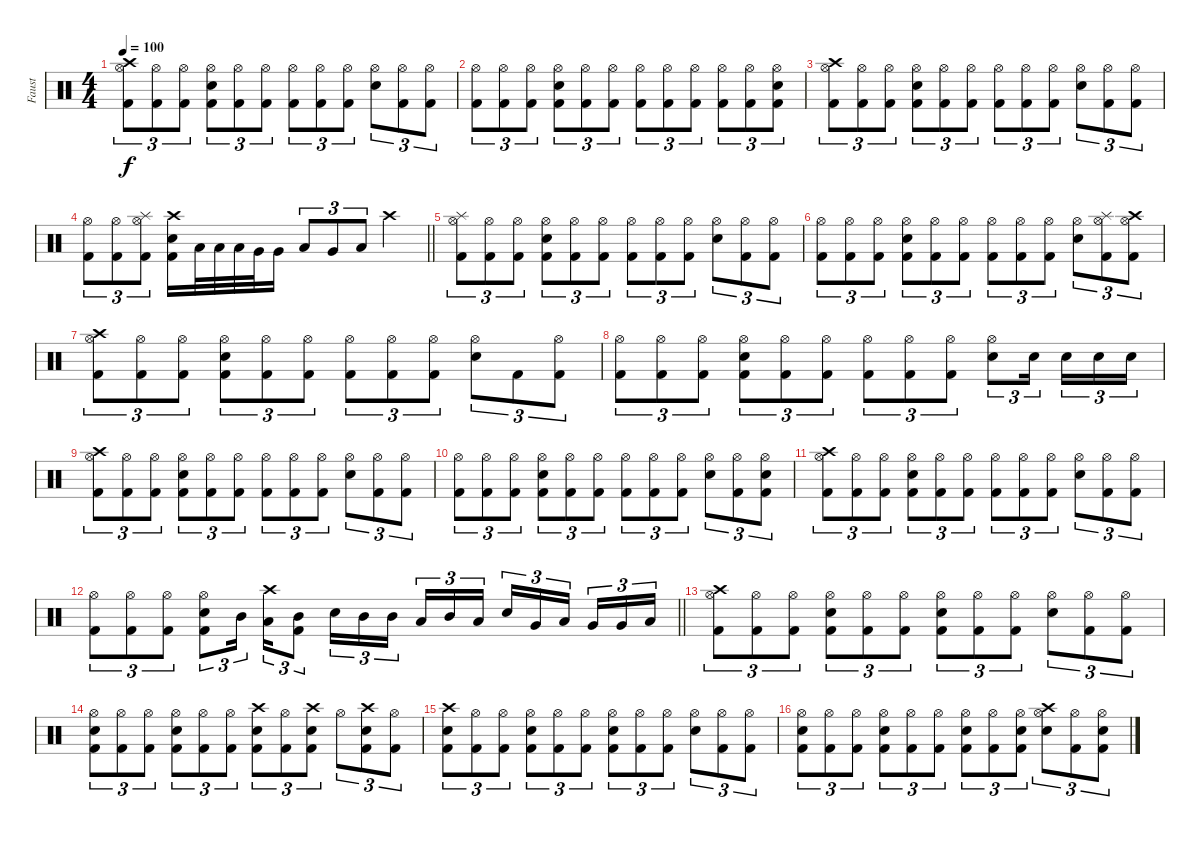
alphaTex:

\track ("Faust" "Faust") {instrument percussion}
\staff {score}
\articulation defaults
\ts (4 4)
\tempo 100
\clef neutral
\ks c
("Crash high (hit)" "Hi-Hat (open)" "Kick (hit) 2").8{tu (3 2) dy f} ("Hi-Hat (open)" "Kick (hit) 2").8{tu (3 2)} ("Hi-Hat (open)" "Kick (hit) 2").8{tu (3 2)} ("Snare (hit) 2" "Hi-Hat (open)" "Kick (hit) 2").8{tu (3 2)} ("Hi-Hat (open)" "Kick (hit) 2").8{tu (3 2)} ("Hi-Hat (open)" "Kick (hit) 2").8{tu (3 2)} ("Hi-Hat (open)" "Kick (hit) 2").8{tu (3 2)} ("Hi-Hat (open)" "Kick (hit) 2").8{tu (3 2)} ("Hi-Hat (open)" "Kick (hit) 2").8{tu (3 2)} ("Snare (hit) 2" "Hi-Hat (open)").8{tu (3 2)} ("Hi-Hat (open)" "Kick (hit) 2").8{tu (3 2)} ("Hi-Hat (open)" "Kick (hit) 2").8{tu (3 2)} |
("Hi-Hat (open)" "Kick (hit) 2").8{tu (3 2)} ("Hi-Hat (open)" "Kick (hit) 2").8{tu (3 2)} ("Hi-Hat (open)" "Kick (hit) 2").8{tu (3 2)} ("Snare (hit) 2" "Hi-Hat (open)" "Kick (hit) 2").8{tu (3 2)} ("Hi-Hat (open)" "Kick (hit) 2").8{tu (3 2)} ("Hi-Hat (open)" "Kick (hit) 2").8{tu (3 2)} ("Hi-Hat (open)" "Kick (hit) 2").8{tu (3 2)} ("Hi-Hat (open)" "Kick (hit) 2").8{tu (3 2)} ("Hi-Hat (open)" "Kick (hit) 2").8{tu (3 2)} ("Hi-Hat (open)" "Kick (hit) 2").8{tu (3 2)} ("Hi-Hat (open)" "Kick (hit) 2").8{tu (3 2)} ("Snare (hit) 2" "Hi-Hat (open)" "Kick (hit) 2").8{tu (3 2)} |
("Crash high (hit)" "Hi-Hat (open)" "Kick (hit) 2").8{tu (3 2)} ("Hi-Hat (open)" "Kick (hit) 2").8{tu (3 2)} ("Hi-Hat (open)" "Kick (hit) 2").8{tu (3 2)} ("Snare (hit) 2" "Hi-Hat (open)" "Kick (hit) 2").8{tu (3 2)} ("Hi-Hat (open)" "Kick (hit) 2").8{tu (3 2)} ("Hi-Hat (open)" "Kick (hit) 2").8{tu (3 2)} ("Hi-Hat (open)" "Kick (hit) 2").8{tu (3 2)} ("Hi-Hat (open)" "Kick (hit) 2").8{tu (3 2)} ("Hi-Hat (open)" "Kick (hit) 2").8{tu (3 2)} ("Snare (hit) 2" "Hi-Hat (open)").8{tu (3 2)} ("Hi-Hat (open)" "Kick (hit) 2").8{tu (3 2)} ("Hi-Hat (open)" "Kick (hit) 2").8{tu (3 2)} |
\barLineRight lightlight
("Hi-Hat (open)" "Kick (hit) 2").8{tu (3 2)} ("Hi-Hat (open)" "Kick (hit) 2").8{tu (3 2)} ("Splash (hit)" "Hi-Hat (open)" "Kick (hit) 2").8{tu (3 2)} ("Crash high (hit)" "Snare (hit) 2" "Kick (hit) 2").16 "Low Tom (hit)".32 "Low Tom (hit)".32 "Low Tom (hit)".32 "Very Low Tom (hit)".32 "Very Low Tom (hit)".16 "Low Floor Tom (hit)".8{tu (3 2)} "Very Low Tom (hit)".8{tu (3 2)} "Low Floor Tom (hit)".8{tu (3 2)} "Crash high (hit)".4 |
("Splash (hit)" "Hi-Hat (open)" "Kick (hit) 2").8{tu (3 2)} ("Hi-Hat (open)" "Kick (hit) 2").8{tu (3 2)} ("Hi-Hat (open)" "Kick (hit) 2").8{tu (3 2)} ("Snare (hit) 2" "Hi-Hat (open)" "Kick (hit) 2").8{tu (3 2)} ("Hi-Hat (open)" "Kick (hit) 2").8{tu (3 2)} ("Hi-Hat (open)" "Kick (hit) 2").8{tu (3 2)} ("Hi-Hat (open)" "Kick (hit) 2").8{tu (3 2)} ("Hi-Hat (open)" "Kick (hit) 2").8{tu (3 2)} ("Hi-Hat (open)" "Kick (hit) 2").8{tu (3 2)} ("Snare (hit) 2" "Hi-Hat (open)").8{tu (3 2)} ("Hi-Hat (open)" "Kick (hit) 2").8{tu (3 2)} ("Hi-Hat (open)" "Kick (hit) 2").8{tu (3 2)} |
("Hi-Hat (open)" "Kick (hit) 2").8{tu (3 2)} ("Hi-Hat (open)" "Kick (hit) 2").8{tu (3 2)} ("Hi-Hat (open)" "Kick (hit) 2").8{tu (3 2)} ("Snare (hit) 2" "Hi-Hat (open)" "Kick (hit) 2").8{tu (3 2)} ("Hi-Hat (open)" "Kick (hit) 2").8{tu (3 2)} ("Hi-Hat (open)" "Kick (hit) 2").8{tu (3 2)} ("Hi-Hat (open)" "Kick (hit) 2").8{tu (3 2)} ("Hi-Hat (open)" "Kick (hit) 2").8{tu (3 2)} ("Hi-Hat (open)" "Kick (hit) 2").8{tu (3 2)} ("Snare (hit) 2" "Hi-Hat (open)").8{tu (3 2)} ("Splash (hit)" "Hi-Hat (open)" "Kick (hit) 2").8{tu (3 2)} ("Crash high (hit)" "Hi-Hat (open)" "Kick (hit) 2").8{tu (3 2)} |
("Crash high (hit)" "Hi-Hat (open)" "Kick (hit) 2").8{tu (3 2)} ("Hi-Hat (open)" "Kick (hit) 2").8{tu (3 2)} ("Hi-Hat (open)" "Kick (hit) 2").8{tu (3 2)} ("Snare (hit) 2" "Hi-Hat (open)" "Kick (hit) 2").8{tu (3 2)} ("Hi-Hat (open)" "Kick (hit) 2").8{tu (3 2)} ("Hi-Hat (open)" "Kick (hit) 2").8{tu (3 2)} ("Hi-Hat (open)" "Kick (hit) 2").8{tu (3 2)} ("Hi-Hat (open)" "Kick (hit) 2").8{tu (3 2)} ("Hi-Hat (open)" "Kick (hit) 2").8{tu (3 2)} ("Snare (hit) 2" "Hi-Hat (open)").8{tu (3 2)} "Kick (hit) 2".8{tu (3 2)} ("Hi-Hat (open)" "Kick (hit) 2").8{tu (3 2)} |
("Hi-Hat (open)" "Kick (hit) 2").8{tu (3 2)} ("Hi-Hat (open)" "Kick (hit) 2").8{tu (3 2)} ("Hi-Hat (open)" "Kick (hit) 2").8{tu (3 2)} ("Snare (hit) 2" "Hi-Hat (open)" "Kick (hit) 2").8{tu (3 2)} ("Hi-Hat (open)" "Kick (hit) 2").8{tu (3 2)} ("Hi-Hat (open)" "Kick (hit) 2").8{tu (3 2)} ("Hi-Hat (open)" "Kick (hit) 2").8{tu (3 2)} ("Hi-Hat (open)" "Kick (hit) 2").8{tu (3 2)} ("Hi-Hat (open)" "Kick (hit) 2").8{tu (3 2)} ("Snare (hit) 2" "Hi-Hat (open)").8{tu (3 2)} "Snare (hit) 2".16{tu (3 2) beam splitsecondary} "Snare (hit) 2".16{tu (3 2)} "Snare (hit) 2".16{tu (3 2)} "Snare (hit) 2".16{tu (3 2)} |
("Crash high (hit)" "Hi-Hat (open)" "Kick (hit) 2").8{tu (3 2)} ("Hi-Hat (open)" "Kick (hit) 2").8{tu (3 2)} ("Hi-Hat (open)" "Kick (hit) 2").8{tu (3 2)} ("Snare (hit) 2" "Hi-Hat (open)" "Kick (hit) 2").8{tu (3 2)} ("Hi-Hat (open)" "Kick (hit) 2").8{tu (3 2)} ("Hi-Hat (open)" "Kick (hit) 2").8{tu (3 2)} ("Hi-Hat (open)" "Kick (hit) 2").8{tu (3 2)} ("Hi-Hat (open)" "Kick (hit) 2").8{tu (3 2)} ("Hi-Hat (open)" "Kick (hit) 2").8{tu (3 2)} ("Snare (hit) 2" "Hi-Hat (open)").8{tu (3 2)} ("Hi-Hat (open)" "Kick (hit) 2").8{tu (3 2)} ("Hi-Hat (open)" "Kick (hit) 2").8{tu (3 2)} |
("Hi-Hat (open)" "Kick (hit) 2").8{tu (3 2)} ("Hi-Hat (open)" "Kick (hit) 2").8{tu (3 2)} ("Hi-Hat (open)" "Kick (hit) 2").8{tu (3 2)} ("Snare (hit) 2" "Hi-Hat (open)" "Kick (hit) 2").8{tu (3 2)} ("Hi-Hat (open)" "Kick (hit) 2").8{tu (3 2)} ("Hi-Hat (open)" "Kick (hit) 2").8{tu (3 2)} ("Hi-Hat (open)" "Kick (hit) 2").8{tu (3 2)} ("Hi-Hat (open)" "Kick (hit) 2").8{tu (3 2)} ("Hi-Hat (open)" "Kick (hit) 2").8{tu (3 2)} ("Snare (hit) 2" "Hi-Hat (open)").8{tu (3 2)} ("Hi-Hat (open)" "Kick (hit) 2").8{tu (3 2)} ("Snare (hit) 2" "Hi-Hat (open)" "Kick (hit) 2").8{tu (3 2)} |
("Crash high (hit)" "Hi-Hat (open)" "Kick (hit) 2").8{tu (3 2)} ("Hi-Hat (open)" "Kick (hit) 2").8{tu (3 2)} ("Hi-Hat (open)" "Kick (hit) 2").8{tu (3 2)} ("Snare (hit) 2" "Hi-Hat (open)" "Kick (hit) 2").8{tu (3 2)} ("Hi-Hat (open)" "Kick (hit) 2").8{tu (3 2)} ("Hi-Hat (open)" "Kick (hit) 2").8{tu (3 2)} ("Hi-Hat (open)" "Kick (hit) 2").8{tu (3 2)} ("Hi-Hat (open)" "Kick (hit) 2").8{tu (3 2)} ("Hi-Hat (open)" "Kick (hit) 2").8{tu (3 2)} ("Snare (hit) 2" "Hi-Hat (open)").8{tu (3 2)} ("Hi-Hat (open)" "Kick (hit) 2").8{tu (3 2)} ("Hi-Hat (open)" "Kick (hit) 2").8{tu (3 2)} |
\barLineRight lightlight
("Hi-Hat (open)" "Kick (hit) 2").8{tu (3 2)} ("Hi-Hat (open)" "Kick (hit) 2").8{tu (3 2)} ("Hi-Hat (open)" "Kick (hit) 2").8{tu (3 2)} ("Snare (hit) 2" "Hi-Hat (open)" "Kick (hit) 2").8{tu (3 2)} "Mid Tom (hit)".16{tu (3 2) beam splitsecondary} ("Crash high (hit)" "Low Tom (hit)").16{tu (3 2)} ("Mid Tom (hit)" "Kick (hit) 2").8{tu (3 2)} "Snare (hit) 2".16{tu (3 2)} "Mid Tom (hit)".16{tu (3 2)} "Mid Tom (hit)".16{tu (3 2) beam splitsecondary} "Low Tom (hit)".16{tu (3 2)} "Mid Tom (hit)".16{tu (3 2)} "Low Tom (hit)".16{tu (3 2)} "Snare (hit) 2".16{tu (3 2)} "Very Low Tom (hit)".16{tu (3 2)} "Low Tom (hit)".16{tu (3 2) beam splitsecondary} "Very Low Tom (hit)".16{tu (3 2)} "Very Low Tom (hit)".16{tu (3 2)} "Low Floor Tom (hit)".16{tu (3 2)} |
("Crash high (hit)" "Hi-Hat (open)" "Kick (hit) 2").8{tu (3 2)} ("Hi-Hat (open)" "Kick (hit) 2").8{tu (3 2)} ("Hi-Hat (open)" "Kick (hit) 2").8{tu (3 2)} ("Snare (hit) 2" "Hi-Hat (open)" "Kick (hit) 2").8{tu (3 2)} ("Hi-Hat (open)" "Kick (hit) 2").8{tu (3 2)} ("Hi-Hat (open)" "Kick (hit) 2").8{tu (3 2)} ("Snare (hit) 2" "Hi-Hat (open)" "Kick (hit) 2").8{tu (3 2)} ("Hi-Hat (open)" "Kick (hit) 2").8{tu (3 2)} ("Hi-Hat (open)" "Kick (hit) 2").8{tu (3 2)} ("Snare (hit) 2" "Hi-Hat (open)").8{tu (3 2)} ("Hi-Hat (open)" "Kick (hit) 2").8{tu (3 2)} ("Hi-Hat (open)" "Kick (hit) 2").8{tu (3 2)} |
("Snare (hit) 2" "Hi-Hat (open)" "Kick (hit) 2").8{tu (3 2)} ("Hi-Hat (open)" "Kick (hit) 2").8{tu (3 2)} ("Hi-Hat (open)" "Kick (hit) 2").8{tu (3 2)} ("Snare (hit) 2" "Hi-Hat (open)" "Kick (hit) 2").8{tu (3 2)} ("Hi-Hat (open)" "Kick (hit) 2").8{tu (3 2)} ("Hi-Hat (open)" "Kick (hit) 2").8{tu (3 2)} ("Crash high (hit)" "Snare (hit) 2" "Kick (hit) 2").8{tu (3 2)} ("Hi-Hat (open)" "Kick (hit) 2").8{tu (3 2)} ("Crash high (hit)" "Snare (hit) 2" "Kick (hit) 2").8{tu (3 2)} "Hi-Hat (open)".8{tu (3 2)} ("Crash high (hit)" "Snare (hit) 2" "Kick (hit) 2").8{tu (3 2)} ("Hi-Hat (open)" "Kick (hit) 2").8{tu (3 2)} |
("Crash high (hit)" "Snare (hit) 2" "Kick (hit) 2").8{tu (3 2)} ("Hi-Hat (open)" "Kick (hit) 2").8{tu (3 2)} ("Hi-Hat (open)" "Kick (hit) 2").8{tu (3 2)} ("Snare (hit) 2" "Hi-Hat (open)" "Kick (hit) 2").8{tu (3 2)} ("Hi-Hat (open)" "Kick (hit) 2").8{tu (3 2)} ("Hi-Hat (open)" "Kick (hit) 2").8{tu (3 2)} ("Snare (hit) 2" "Hi-Hat (open)" "Kick (hit) 2").8{tu (3 2)} ("Hi-Hat (open)" "Kick (hit) 2").8{tu (3 2)} ("Hi-Hat (open)" "Kick (hit) 2").8{tu (3 2)} ("Snare (hit) 2" "Hi-Hat (open)").8{tu (3 2)} ("Hi-Hat (open)" "Kick (hit) 2").8{tu (3 2)} ("Hi-Hat (open)" "Kick (hit) 2").8{tu (3 2)} |
("Snare (hit) 2" "Hi-Hat (open)" "Kick (hit) 2").8{tu (3 2)} ("Hi-Hat (open)" "Kick (hit) 2").8{tu (3 2)} ("Hi-Hat (open)" "Kick (hit) 2").8{tu (3 2)} ("Snare (hit) 2" "Hi-Hat (open)" "Kick (hit) 2").8{tu (3 2)} ("Hi-Hat (open)" "Kick (hit) 2").8{tu (3 2)} ("Hi-Hat (open)" "Kick (hit) 2").8{tu (3 2)} ("Snare (hit) 2" "Hi-Hat (open)" "Kick (hit) 2").8{tu (3 2)} ("Hi-Hat (open)" "Kick (hit) 2").8{tu (3 2)} ("Snare (hit) 2" "Hi-Hat (open)" "Kick (hit) 2").8{tu (3 2)} ("Crash high (hit)" "Snare (hit) 2" "Hi-Hat (open)").8{tu (3 2)} ("Hi-Hat (open)" "Kick (hit) 2").8{tu (3 2)} ("Snare (hit) 2" "Hi-Hat (open)" "Kick (hit) 2").8{tu (3 2)}
